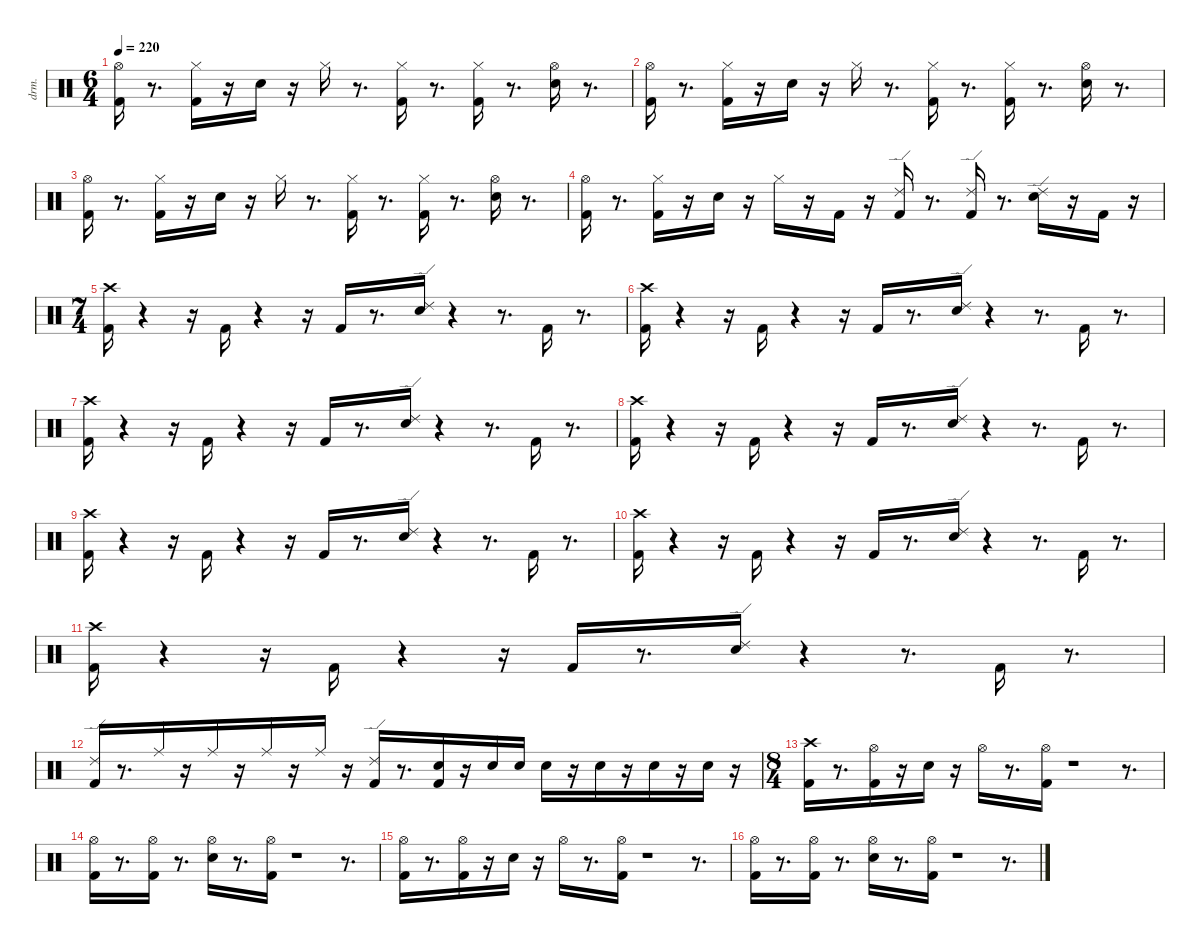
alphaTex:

\defaultSystemsLayout 4
\hideDynamics
\bracketExtendMode nobrackets
\otherSystemsTrackNameOrientation horizontal
\track ("EZdrummer 3" "drm.") {instrument percussion}
\staff {score}
\articulation defaults
\ts (6 4)
\tempo 220
\clef neutral
\ks c
("Kick (hit) 2" "Hi-Hat (open)"{acc #}).16{dy fff beam Down} r.8{d beam Down} ("Kick (hit) 2" "Hi-Hat (closed)"{acc #}).16{dy f beam Down} r.16{beam Down} "Snare (hit) 2".16{dy ff beam Down} r.16{beam Down} "Hi-Hat (closed)"{acc #}.16{beam Down} r.8{d beam Down} ("Kick (hit) 2" "Hi-Hat (closed)"{acc #}).16{beam Down} r.8{d beam Down} ("Kick (hit) 2" "Hi-Hat (closed)"{acc #}).16{dy f beam Down} r.8{d beam Down} ("Snare (hit) 2" "Hi-Hat (open)"{acc #}).16{dy ff beam Down} r.8{d beam Down} |
("Kick (hit) 2" "Hi-Hat (open)"{acc #}).16{dy fff beam Down} r.8{d beam Down} ("Kick (hit) 2" "Hi-Hat (closed)"{acc #}).16{dy f beam Down} r.16{beam Down} "Snare (hit) 2".16{dy ff beam Down} r.16{beam Down} "Hi-Hat (closed)"{acc #}.16{beam Down} r.8{d beam Down} ("Kick (hit) 2" "Hi-Hat (closed)"{acc #}).16{beam Down} r.8{d beam Down} ("Kick (hit) 2" "Hi-Hat (closed)"{acc #}).16{dy f beam Down} r.8{d beam Down} ("Snare (hit) 2" "Hi-Hat (open)"{acc #}).16{dy ff beam Down} r.8{d beam Down} |
("Kick (hit) 2" "Hi-Hat (open)"{acc #}).16{dy fff beam Down} r.8{d beam Down} ("Kick (hit) 2" "Hi-Hat (closed)"{acc #}).16{dy f beam Down} r.16{beam Down} "Snare (hit) 2".16{dy ff beam Down} r.16{beam Down} "Hi-Hat (closed)"{acc #}.16{beam Down} r.8{d beam Down} ("Kick (hit) 2" "Hi-Hat (closed)"{acc #}).16{beam Down} r.8{d beam Down} ("Kick (hit) 2" "Hi-Hat (closed)"{acc #}).16{dy f beam Down} r.8{d beam Down} ("Snare (hit) 2" "Hi-Hat (open)"{acc #}).16{dy ff beam Down} r.8{d beam Down} |
("Kick (hit) 2" "Hi-Hat (open)"{acc #}).16{dy fff beam Down} r.8{d beam Down} ("Kick (hit) 2" "Hi-Hat (closed)"{acc #}).16{dy f beam Down} r.16{beam Down} "Snare (hit) 2".16{dy ff beam Down} r.16{beam Down} "Hi-Hat (closed)"{acc #}.16{beam Down} r.16{beam Down} "Kick (hit) 2".16{dy mp beam Up} r.16{beam Up} ("Kick (hit) 2" "Ride (edge) 2").16{dy ff beam Up} r.8{d beam Up} ("Kick (hit) 2" "Ride (edge) 2").16{dy f beam Up} r.8{d beam Up} ("Snare (hit) 2" "Ride (edge) 2").16{dy ff beam Down} r.16{beam Down} "Kick (hit) 2".16{dy mp beam Up} r.16{beam Up} |
\ts (7 4)
\beaming (8 6 4 4)
("Kick (hit) 2" "Crash high (hit)"{acc #}).16{dy fff beam Down} r.4{beam Down} r.16{beam Down} "Kick (hit) 2".16{dy f beam Up} r.4{beam Up} r.16{beam Up} "Kick (hit) 2".16{dy ff beam Up} r.8{d beam Up} ("Snare (hit) 2" "Ride (edge) 2").16{beam Down} r.4{beam Down} r.8{d beam Down} "Kick (hit) 2".16{dy mf beam Up} r.8{d beam Up} |
("Kick (hit) 2" "Crash high (hit)"{acc #}).16{dy fff beam Down} r.4{beam Down} r.16{beam Down} "Kick (hit) 2".16{dy f beam Up} r.4{beam Up} r.16{beam Up} "Kick (hit) 2".16{dy ff beam Up} r.8{d beam Up} ("Snare (hit) 2" "Ride (edge) 2").16{beam Down} r.4{beam Down} r.8{d beam Down} "Kick (hit) 2".16{dy mf beam Up} r.8{d beam Up} |
("Kick (hit) 2" "Crash high (hit)"{acc #}).16{dy fff beam Down} r.4{beam Down} r.16{beam Down} "Kick (hit) 2".16{dy f beam Up} r.4{beam Up} r.16{beam Up} "Kick (hit) 2".16{dy ff beam Up} r.8{d beam Up} ("Snare (hit) 2" "Ride (edge) 2").16{beam Down} r.4{beam Down} r.8{d beam Down} "Kick (hit) 2".16{dy mf beam Up} r.8{d beam Up} |
("Kick (hit) 2" "Crash high (hit)"{acc #}).16{dy fff beam Down} r.4{beam Down} r.16{beam Down} "Kick (hit) 2".16{dy f beam Up} r.4{beam Up} r.16{beam Up} "Kick (hit) 2".16{dy ff beam Up} r.8{d beam Up} ("Snare (hit) 2" "Ride (edge) 2").16{beam Down} r.4{beam Down} r.8{d beam Down} "Kick (hit) 2".16{dy mf beam Up} r.8{d beam Up} |
("Kick (hit) 2" "Crash high (hit)"{acc #}).16{dy fff beam Down} r.4{beam Down} r.16{beam Down} "Kick (hit) 2".16{dy f beam Up} r.4{beam Up} r.16{beam Up} "Kick (hit) 2".16{dy ff beam Up} r.8{d beam Up} ("Snare (hit) 2" "Ride (edge) 2").16{beam Down} r.4{beam Down} r.8{d beam Down} "Kick (hit) 2".16{dy mf beam Up} r.8{d beam Up} |
("Kick (hit) 2" "Crash high (hit)"{acc #}).16{dy fff beam Down} r.4{beam Down} r.16{beam Down} "Kick (hit) 2".16{dy f beam Up} r.4{beam Up} r.16{beam Up} "Kick (hit) 2".16{dy ff beam Up} r.8{d beam Up} ("Snare (hit) 2" "Ride (edge) 2").16{beam Down} r.4{beam Down} r.8{d beam Down} "Kick (hit) 2".16{dy mf beam Up} r.8{d beam Up} |
("Kick (hit) 2" "Crash high (hit)"{acc #}).16{dy fff beam Down} r.4{beam Down} r.16{beam Down} "Kick (hit) 2".16{dy f beam Up} r.4{beam Up} r.16{beam Up} "Kick (hit) 2".16{dy ff beam Up} r.8{d beam Up} ("Snare (hit) 2" "Ride (edge) 2").16{beam Down} r.4{beam Down} r.8{d beam Down} "Kick (hit) 2".16{dy mf beam Up} r.8{d beam Up} |
("Kick (hit) 2" "Ride (edge) 2").16{dy fff beam Up} r.8{d beam Up} "Ride (middle)"{acc #}.16{dy mf beam Down} r.16{beam Down} "Ride (middle)"{acc #}.16{dy ppp beam Down} r.16{beam Down} "Ride (middle)"{acc #}.16{dy mp beam Down} r.16{beam Down} "Ride (middle)"{acc #}.16{dy ppp beam Down} r.16{beam Down} ("Kick (hit) 2" "Ride (edge) 2").16{dy ff beam Up} r.8{d beam Up} ("Kick (hit) 2" "Snare (hit) 2").16{beam Up} r.16{beam Up} "Snare (hit) 2".16{dy p beam Down} "Snare (hit) 2".16{dy pp beam Down} "Snare (hit) 2".16{dy mp beam Down} r.16{beam Down} "Snare (hit) 2".16{dy mf beam Down} r.16{beam Down} "Snare (hit) 2".16{dy ff beam Down} r.16{beam Down} "Snare (hit) 2".16{dy fff beam Down} r.16{beam Down} |
\ts (8 4)
\beaming (8 4 4 4 4)
("Kick (hit) 2" "Crash high (hit)"{acc #}).16{beam Down} r.8{d beam Down} ("Kick (hit) 2" "Hi-Hat (open)"{acc #}).16{dy ff beam Down} r.16{beam Down} "Snare (hit) 2".16{beam Down} r.16{beam Down} "Hi-Hat (open)"{acc #}.16{beam Down} r.8{d beam Down} ("Kick (hit) 2" "Hi-Hat (open)"{acc #}).16{beam Down} r.1{beam Down} r.8{d beam Down} |
("Kick (hit) 2" "Hi-Hat (open)"{acc #}).16{beam Down} r.8{d beam Down} ("Kick (hit) 2" "Hi-Hat (open)"{acc #}).16{beam Down} r.8{d beam Down} ("Snare (hit) 2" "Hi-Hat (open)"{acc #}).16{beam Down} r.8{d beam Down} ("Kick (hit) 2" "Hi-Hat (open)"{acc #}).16{dy mf beam Down} r.1{beam Down} r.8{d beam Down} |
("Kick (hit) 2" "Hi-Hat (open)"{acc #}).16{dy fff beam Down} r.8{d beam Down} ("Kick (hit) 2" "Hi-Hat (open)"{acc #}).16{dy ff beam Down} r.16{beam Down} "Snare (hit) 2".16{beam Down} r.16{beam Down} "Hi-Hat (open)"{acc #}.16{beam Down} r.8{d beam Down} ("Kick (hit) 2" "Hi-Hat (open)"{acc #}).16{beam Down} r.1{beam Down} r.8{d beam Down} |
("Kick (hit) 2" "Hi-Hat (open)"{acc #}).16{beam Down} r.8{d beam Down} ("Kick (hit) 2" "Hi-Hat (open)"{acc #}).16{beam Down} r.8{d beam Down} ("Snare (hit) 2" "Hi-Hat (open)"{acc #}).16{beam Down} r.8{d beam Down} ("Kick (hit) 2" "Hi-Hat (open)"{acc #}).16{dy mf beam Down} r.1{beam Down} r.8{d beam Down}
